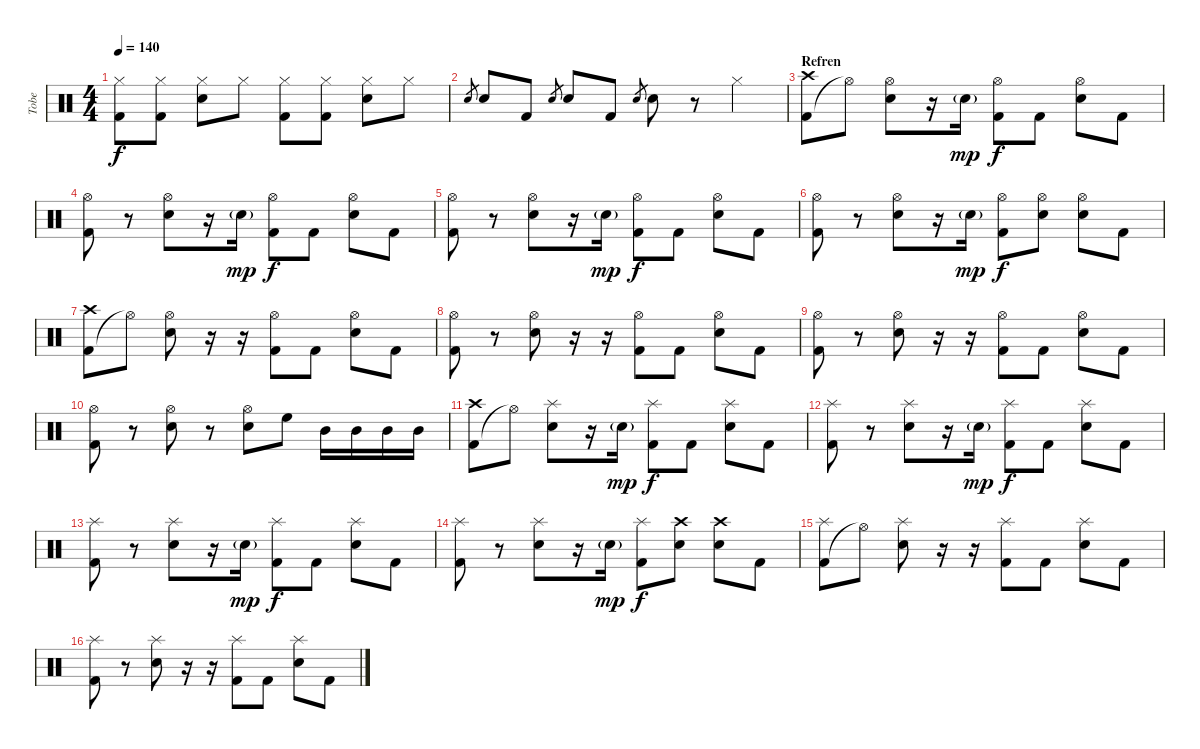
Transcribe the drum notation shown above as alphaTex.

\track ("Tobe" "Tobe") {instrument percussion}
\staff {score}
\articulation defaults
\ts (4 4)
\tempo 140
\clef neutral
\ks c
("Kick (hit) 2" "Hi-Hat (closed)").8{dy f} ("Kick (hit) 2" "Hi-Hat (closed)").8 ("Electric Snare (hit)" "Hi-Hat (closed)").8 "Hi-Hat (closed)".8 ("Kick (hit) 2" "Hi-Hat (closed)").8 ("Kick (hit) 2" "Hi-Hat (closed)").8 ("Electric Snare (hit)" "Hi-Hat (closed)").8 "Hi-Hat (closed)".8 |
"Electric Snare (hit)".8{gr} "Electric Snare (hit)".8 "Kick (hit) 2".8 "Electric Snare (hit)".8{gr} "Electric Snare (hit)".8 "Kick (hit) 2".8 "Electric Snare (hit)".8{gr} "Electric Snare (hit)".8 r.8 "Hi-Hat (closed)".4 |
\section ("" "Refren")
("Kick (hit) 2" "Crash high (hit)").8 "Hi-Hat (open)"{t}.8 ("Electric Snare (hit)" "Hi-Hat (open)").8 r.16 "Electric Snare (hit)"{g}.16{dy mp} ("Kick (hit) 2" "Hi-Hat (open)").8{dy f} "Kick (hit) 2".8 ("Electric Snare (hit)" "Hi-Hat (open)").8 "Kick (hit) 2".8 |
("Kick (hit) 2" "Hi-Hat (open)").8 r.8 ("Electric Snare (hit)" "Hi-Hat (open)").8 r.16 "Electric Snare (hit)"{g}.16{dy mp} ("Kick (hit) 2" "Hi-Hat (open)").8{dy f} "Kick (hit) 2".8 ("Electric Snare (hit)" "Hi-Hat (open)").8 "Kick (hit) 2".8 |
("Kick (hit) 2" "Hi-Hat (open)").8 r.8 ("Electric Snare (hit)" "Hi-Hat (open)").8 r.16 "Electric Snare (hit)"{g}.16{dy mp} ("Kick (hit) 2" "Hi-Hat (open)").8{dy f} "Kick (hit) 2".8 ("Electric Snare (hit)" "Hi-Hat (open)").8 "Kick (hit) 2".8 |
("Kick (hit) 2" "Hi-Hat (open)").8 r.8 ("Electric Snare (hit)" "Hi-Hat (open)").8 r.16 "Electric Snare (hit)"{g}.16{dy mp} ("Kick (hit) 2" "Hi-Hat (open)").8{dy f} ("Electric Snare (hit)" "Hi-Hat (open)").8 ("Electric Snare (hit)" "Hi-Hat (open)").8 "Kick (hit) 2".8 |
("Kick (hit) 2" "Crash high (hit)").8 "Hi-Hat (open)"{t}.8 ("Electric Snare (hit)" "Hi-Hat (open)").8 r.16 r.16 ("Kick (hit) 2" "Hi-Hat (open)").8 "Kick (hit) 2".8 ("Electric Snare (hit)" "Hi-Hat (open)").8 "Kick (hit) 2".8 |
("Kick (hit) 2" "Hi-Hat (open)").8 r.8 ("Electric Snare (hit)" "Hi-Hat (open)").8 r.16 r.16 ("Kick (hit) 2" "Hi-Hat (open)").8 "Kick (hit) 2".8 ("Electric Snare (hit)" "Hi-Hat (open)").8 "Kick (hit) 2".8 |
("Kick (hit) 2" "Hi-Hat (open)").8 r.8 ("Electric Snare (hit)" "Hi-Hat (open)").8 r.16 r.16 ("Kick (hit) 2" "Hi-Hat (open)").8 "Kick (hit) 2".8 ("Electric Snare (hit)" "Hi-Hat (open)").8 "Kick (hit) 2".8 |
("Kick (hit) 2" "Hi-Hat (open)").8 r.8 ("Electric Snare (hit)" "Hi-Hat (open)").8 r.8 ("Electric Snare (hit)" "Hi-Hat (open)").8 "High Floor Tom (hit)".8 "Mid Tom (hit)".16 "Mid Tom (hit)".16 "Mid Tom (hit)".16 "Mid Tom (hit)".16 |
("Kick (hit) 2" "Crash high (hit)").8 "Hi-Hat (open)"{t}.8 ("Electric Snare (hit)" "Splash (hit)").8 r.16 "Electric Snare (hit)"{g}.16{dy mp} ("Kick (hit) 2" "Splash (hit)").8{dy f} "Kick (hit) 2".8 ("Electric Snare (hit)" "Splash (hit)").8 "Kick (hit) 2".8 |
("Kick (hit) 2" "Splash (hit)").8 r.8 ("Electric Snare (hit)" "Splash (hit)").8 r.16 "Electric Snare (hit)"{g}.16{dy mp} ("Kick (hit) 2" "Splash (hit)").8{dy f} "Kick (hit) 2".8 ("Electric Snare (hit)" "Splash (hit)").8 "Kick (hit) 2".8 |
("Kick (hit) 2" "Splash (hit)").8 r.8 ("Electric Snare (hit)" "Splash (hit)").8 r.16 "Electric Snare (hit)"{g}.16{dy mp} ("Kick (hit) 2" "Splash (hit)").8{dy f} "Kick (hit) 2".8 ("Electric Snare (hit)" "Splash (hit)").8 "Kick (hit) 2".8 |
("Kick (hit) 2" "Splash (hit)").8 r.8 ("Electric Snare (hit)" "Splash (hit)").8 r.16 "Electric Snare (hit)"{g}.16{dy mp} ("Kick (hit) 2" "Splash (hit)").8{dy f} ("Electric Snare (hit)" "Crash high (hit)").8 ("Electric Snare (hit)" "Crash high (hit)").8 "Kick (hit) 2".8 |
("Kick (hit) 2" "Splash (hit)").8 "Hi-Hat (open)"{t}.8 ("Electric Snare (hit)" "Splash (hit)").8 r.16 r.16 ("Kick (hit) 2" "Splash (hit)").8 "Kick (hit) 2".8 ("Electric Snare (hit)" "Splash (hit)").8 "Kick (hit) 2".8 |
("Kick (hit) 2" "Splash (hit)").8 r.8 ("Electric Snare (hit)" "Splash (hit)").8 r.16 r.16 ("Kick (hit) 2" "Splash (hit)").8 "Kick (hit) 2".8 ("Electric Snare (hit)" "Splash (hit)").8 "Kick (hit) 2".8
